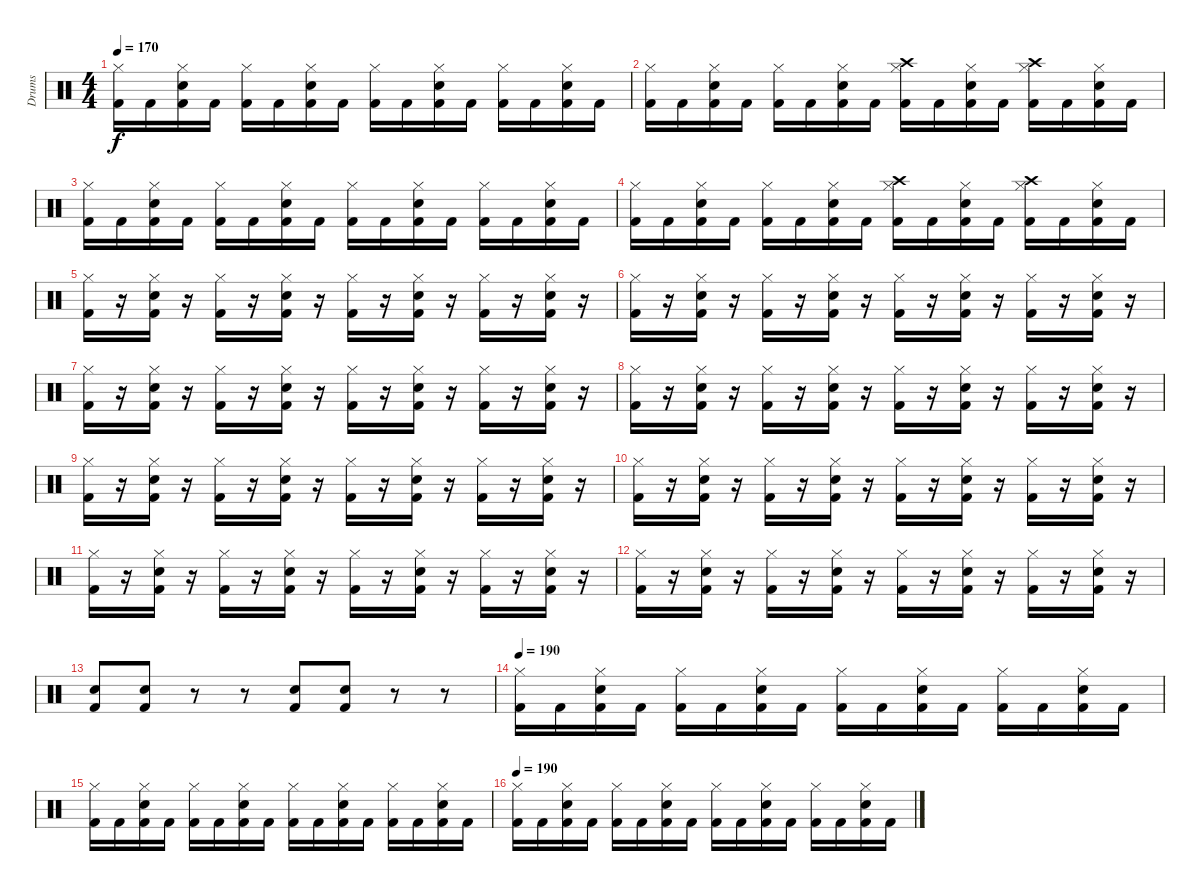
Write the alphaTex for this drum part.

\track ("Drums" "Drums") {instrument percussion}
\staff {score}
\articulation defaults
\ts (4 4)
\tempo 170
\clef neutral
\ks c
("Kick (hit) 2" "Hi-Hat (closed)").16{dy f} "Kick (hit) 2".16 ("Kick (hit) 2" "Hi-Hat (closed)" "Electric Snare (hit)").16 "Kick (hit) 2".16 ("Kick (hit) 2" "Hi-Hat (closed)").16 "Kick (hit) 2".16 ("Kick (hit) 2" "Hi-Hat (closed)" "Electric Snare (hit)").16 "Kick (hit) 2".16 ("Kick (hit) 2" "Hi-Hat (closed)").16 "Kick (hit) 2".16 ("Kick (hit) 2" "Hi-Hat (closed)" "Electric Snare (hit)").16 "Kick (hit) 2".16 ("Kick (hit) 2" "Hi-Hat (closed)").16 "Kick (hit) 2".16 ("Kick (hit) 2" "Hi-Hat (closed)" "Electric Snare (hit)").16 "Kick (hit) 2".16 |
("Kick (hit) 2" "Hi-Hat (closed)").16 "Kick (hit) 2".16 ("Kick (hit) 2" "Hi-Hat (closed)" "Electric Snare (hit)").16 "Kick (hit) 2".16 ("Kick (hit) 2" "Hi-Hat (closed)").16 "Kick (hit) 2".16 ("Kick (hit) 2" "Hi-Hat (closed)" "Electric Snare (hit)").16 "Kick (hit) 2".16 ("Kick (hit) 2" "Hi-Hat (closed)" "Crash high (hit)").16 "Kick (hit) 2".16 ("Kick (hit) 2" "Hi-Hat (closed)" "Electric Snare (hit)").16 "Kick (hit) 2".16 ("Kick (hit) 2" "Hi-Hat (closed)" "Crash high (hit)").16 "Kick (hit) 2".16 ("Kick (hit) 2" "Hi-Hat (closed)" "Electric Snare (hit)").16 "Kick (hit) 2".16 |
("Kick (hit) 2" "Hi-Hat (closed)").16 "Kick (hit) 2".16 ("Kick (hit) 2" "Hi-Hat (closed)" "Electric Snare (hit)").16 "Kick (hit) 2".16 ("Kick (hit) 2" "Hi-Hat (closed)").16 "Kick (hit) 2".16 ("Kick (hit) 2" "Hi-Hat (closed)" "Electric Snare (hit)").16 "Kick (hit) 2".16 ("Kick (hit) 2" "Hi-Hat (closed)").16 "Kick (hit) 2".16 ("Kick (hit) 2" "Hi-Hat (closed)" "Electric Snare (hit)").16 "Kick (hit) 2".16 ("Kick (hit) 2" "Hi-Hat (closed)").16 "Kick (hit) 2".16 ("Kick (hit) 2" "Hi-Hat (closed)" "Electric Snare (hit)").16 "Kick (hit) 2".16 |
("Kick (hit) 2" "Hi-Hat (closed)").16 "Kick (hit) 2".16 ("Kick (hit) 2" "Hi-Hat (closed)" "Electric Snare (hit)").16 "Kick (hit) 2".16 ("Kick (hit) 2" "Hi-Hat (closed)").16 "Kick (hit) 2".16 ("Kick (hit) 2" "Hi-Hat (closed)" "Electric Snare (hit)").16 "Kick (hit) 2".16 ("Kick (hit) 2" "Hi-Hat (closed)" "Crash high (hit)").16 "Kick (hit) 2".16 ("Kick (hit) 2" "Hi-Hat (closed)" "Electric Snare (hit)").16 "Kick (hit) 2".16 ("Kick (hit) 2" "Hi-Hat (closed)" "Crash high (hit)").16 "Kick (hit) 2".16 ("Kick (hit) 2" "Hi-Hat (closed)" "Electric Snare (hit)").16 "Kick (hit) 2".16 |
("Kick (hit) 2" "Hi-Hat (closed)").16 r.16 ("Kick (hit) 2" "Hi-Hat (closed)" "Electric Snare (hit)").16 r.16 ("Kick (hit) 2" "Hi-Hat (closed)").16 r.16 ("Kick (hit) 2" "Hi-Hat (closed)" "Electric Snare (hit)").16 r.16 ("Kick (hit) 2" "Hi-Hat (closed)").16 r.16 ("Kick (hit) 2" "Hi-Hat (closed)" "Electric Snare (hit)").16 r.16 ("Kick (hit) 2" "Hi-Hat (closed)").16 r.16 ("Kick (hit) 2" "Hi-Hat (closed)" "Electric Snare (hit)").16 r.16 |
("Kick (hit) 2" "Hi-Hat (closed)").16 r.16 ("Kick (hit) 2" "Hi-Hat (closed)" "Electric Snare (hit)").16 r.16 ("Kick (hit) 2" "Hi-Hat (closed)").16 r.16 ("Kick (hit) 2" "Hi-Hat (closed)" "Electric Snare (hit)").16 r.16 ("Kick (hit) 2" "Hi-Hat (closed)").16 r.16 ("Kick (hit) 2" "Hi-Hat (closed)" "Electric Snare (hit)").16 r.16 ("Kick (hit) 2" "Hi-Hat (closed)").16 r.16 ("Kick (hit) 2" "Hi-Hat (closed)" "Electric Snare (hit)").16 r.16 |
("Kick (hit) 2" "Hi-Hat (closed)").16 r.16 ("Kick (hit) 2" "Hi-Hat (closed)" "Electric Snare (hit)").16 r.16 ("Kick (hit) 2" "Hi-Hat (closed)").16 r.16 ("Kick (hit) 2" "Hi-Hat (closed)" "Electric Snare (hit)").16 r.16 ("Kick (hit) 2" "Hi-Hat (closed)").16 r.16 ("Kick (hit) 2" "Hi-Hat (closed)" "Electric Snare (hit)").16 r.16 ("Kick (hit) 2" "Hi-Hat (closed)").16 r.16 ("Kick (hit) 2" "Hi-Hat (closed)" "Electric Snare (hit)").16 r.16 |
("Kick (hit) 2" "Hi-Hat (closed)").16 r.16 ("Kick (hit) 2" "Hi-Hat (closed)" "Electric Snare (hit)").16 r.16 ("Kick (hit) 2" "Hi-Hat (closed)").16 r.16 ("Kick (hit) 2" "Hi-Hat (closed)" "Electric Snare (hit)").16 r.16 ("Kick (hit) 2" "Hi-Hat (closed)").16 r.16 ("Kick (hit) 2" "Hi-Hat (closed)" "Electric Snare (hit)").16 r.16 ("Kick (hit) 2" "Hi-Hat (closed)").16 r.16 ("Kick (hit) 2" "Hi-Hat (closed)" "Electric Snare (hit)").16 r.16 |
("Kick (hit) 2" "Hi-Hat (closed)").16 r.16 ("Kick (hit) 2" "Hi-Hat (closed)" "Electric Snare (hit)").16 r.16 ("Kick (hit) 2" "Hi-Hat (closed)").16 r.16 ("Kick (hit) 2" "Hi-Hat (closed)" "Electric Snare (hit)").16 r.16 ("Kick (hit) 2" "Hi-Hat (closed)").16 r.16 ("Kick (hit) 2" "Hi-Hat (closed)" "Electric Snare (hit)").16 r.16 ("Kick (hit) 2" "Hi-Hat (closed)").16 r.16 ("Kick (hit) 2" "Hi-Hat (closed)" "Electric Snare (hit)").16 r.16 |
("Kick (hit) 2" "Hi-Hat (closed)").16 r.16 ("Kick (hit) 2" "Hi-Hat (closed)" "Electric Snare (hit)").16 r.16 ("Kick (hit) 2" "Hi-Hat (closed)").16 r.16 ("Kick (hit) 2" "Hi-Hat (closed)" "Electric Snare (hit)").16 r.16 ("Kick (hit) 2" "Hi-Hat (closed)").16 r.16 ("Kick (hit) 2" "Hi-Hat (closed)" "Electric Snare (hit)").16 r.16 ("Kick (hit) 2" "Hi-Hat (closed)").16 r.16 ("Kick (hit) 2" "Hi-Hat (closed)" "Electric Snare (hit)").16 r.16 |
("Kick (hit) 2" "Hi-Hat (closed)").16 r.16 ("Kick (hit) 2" "Hi-Hat (closed)" "Electric Snare (hit)").16 r.16 ("Kick (hit) 2" "Hi-Hat (closed)").16 r.16 ("Kick (hit) 2" "Hi-Hat (closed)" "Electric Snare (hit)").16 r.16 ("Kick (hit) 2" "Hi-Hat (closed)").16 r.16 ("Kick (hit) 2" "Hi-Hat (closed)" "Electric Snare (hit)").16 r.16 ("Kick (hit) 2" "Hi-Hat (closed)").16 r.16 ("Kick (hit) 2" "Hi-Hat (closed)" "Electric Snare (hit)").16 r.16 |
("Kick (hit) 2" "Hi-Hat (closed)").16 r.16 ("Kick (hit) 2" "Hi-Hat (closed)" "Electric Snare (hit)").16 r.16 ("Kick (hit) 2" "Hi-Hat (closed)").16 r.16 ("Kick (hit) 2" "Hi-Hat (closed)" "Electric Snare (hit)").16 r.16 ("Kick (hit) 2" "Hi-Hat (closed)").16 r.16 ("Kick (hit) 2" "Hi-Hat (closed)" "Electric Snare (hit)").16 r.16 ("Kick (hit) 2" "Hi-Hat (closed)").16 r.16 ("Kick (hit) 2" "Hi-Hat (closed)" "Electric Snare (hit)").16 r.16 |
("Electric Snare (hit)" "Kick (hit) 2").8 ("Electric Snare (hit)" "Kick (hit) 2").8 r.8 r.8 ("Electric Snare (hit)" "Kick (hit) 2").8 ("Electric Snare (hit)" "Kick (hit) 2").8 r.8 r.8 |
\tempo 190
("Kick (hit) 2" "Hi-Hat (closed)").16 "Kick (hit) 2".16 ("Kick (hit) 2" "Hi-Hat (closed)" "Electric Snare (hit)").16 "Kick (hit) 2".16 ("Kick (hit) 2" "Hi-Hat (closed)").16 "Kick (hit) 2".16 ("Kick (hit) 2" "Hi-Hat (closed)" "Electric Snare (hit)").16 "Kick (hit) 2".16 ("Kick (hit) 2" "Hi-Hat (closed)").16 "Kick (hit) 2".16 ("Kick (hit) 2" "Hi-Hat (closed)" "Electric Snare (hit)").16 "Kick (hit) 2".16 ("Kick (hit) 2" "Hi-Hat (closed)").16 "Kick (hit) 2".16 ("Kick (hit) 2" "Hi-Hat (closed)" "Electric Snare (hit)").16 "Kick (hit) 2".16 |
("Kick (hit) 2" "Hi-Hat (closed)").16 "Kick (hit) 2".16 ("Kick (hit) 2" "Hi-Hat (closed)" "Electric Snare (hit)").16 "Kick (hit) 2".16 ("Kick (hit) 2" "Hi-Hat (closed)").16 "Kick (hit) 2".16 ("Kick (hit) 2" "Hi-Hat (closed)" "Electric Snare (hit)").16 "Kick (hit) 2".16 ("Kick (hit) 2" "Hi-Hat (closed)").16 "Kick (hit) 2".16 ("Kick (hit) 2" "Hi-Hat (closed)" "Electric Snare (hit)").16 "Kick (hit) 2".16 ("Kick (hit) 2" "Hi-Hat (closed)").16 "Kick (hit) 2".16 ("Kick (hit) 2" "Hi-Hat (closed)" "Electric Snare (hit)").16 "Kick (hit) 2".16 |
\tempo 190
("Kick (hit) 2" "Hi-Hat (closed)").16 "Kick (hit) 2".16 ("Kick (hit) 2" "Hi-Hat (closed)" "Electric Snare (hit)").16 "Kick (hit) 2".16 ("Kick (hit) 2" "Hi-Hat (closed)").16 "Kick (hit) 2".16 ("Kick (hit) 2" "Hi-Hat (closed)" "Electric Snare (hit)").16 "Kick (hit) 2".16 ("Kick (hit) 2" "Hi-Hat (closed)").16 "Kick (hit) 2".16 ("Kick (hit) 2" "Hi-Hat (closed)" "Electric Snare (hit)").16 "Kick (hit) 2".16 ("Kick (hit) 2" "Hi-Hat (closed)").16 "Kick (hit) 2".16 ("Kick (hit) 2" "Hi-Hat (closed)" "Electric Snare (hit)").16 "Kick (hit) 2".16
